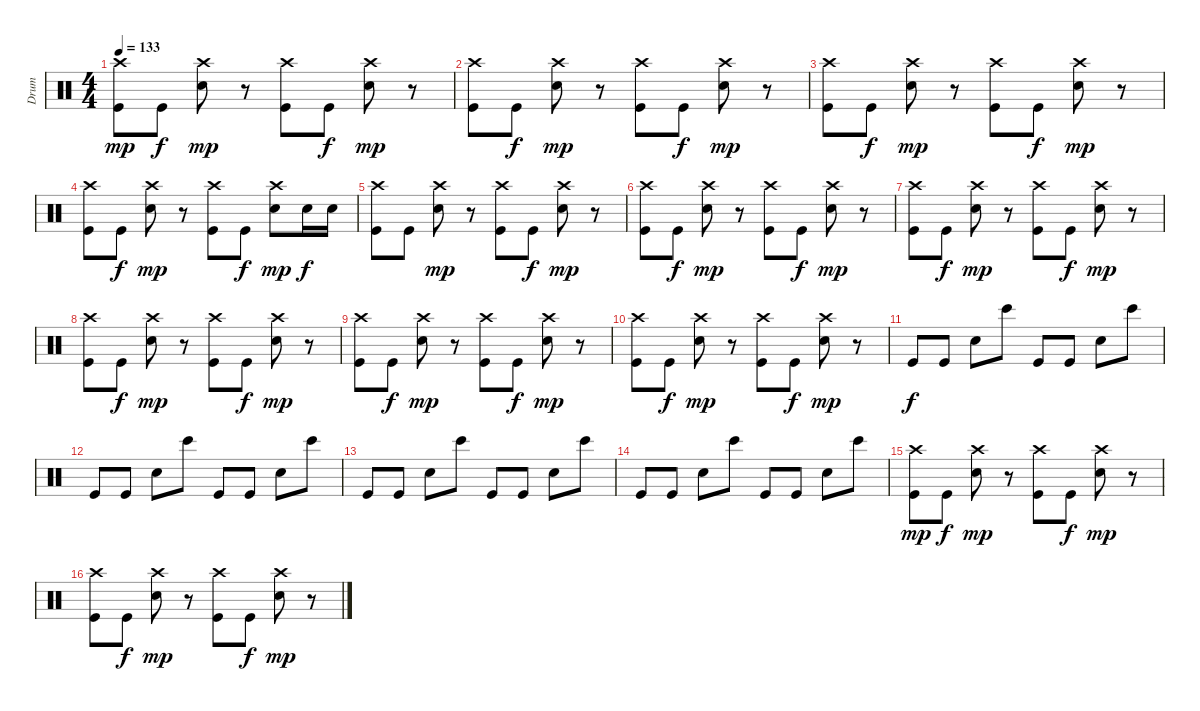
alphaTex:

\track ("Drum" "Drum") {instrument percussion}
\staff {score}
\articulation defaults
\ts (4 4)
\tempo 133
\clef neutral
\ks c
("Crash high (hit)" "Kick (hit)").8{dy mp} "Kick (hit)".8{dy f} ("Crash high (hit)" "Snare (hit) 2").8{dy mp} r.8 ("Crash high (hit)" "Kick (hit)").8 "Kick (hit)".8{dy f} ("Crash high (hit)" "Snare (hit) 2").8{dy mp} r.8 |
("Crash high (hit)" "Kick (hit)").8 "Kick (hit)".8{dy f} ("Crash high (hit)" "Snare (hit) 2").8{dy mp} r.8 ("Crash high (hit)" "Kick (hit)").8 "Kick (hit)".8{dy f} ("Crash high (hit)" "Snare (hit) 2").8{dy mp} r.8 |
("Crash high (hit)" "Kick (hit)").8 "Kick (hit)".8{dy f} ("Crash high (hit)" "Snare (hit) 2").8{dy mp} r.8 ("Crash high (hit)" "Kick (hit)").8 "Kick (hit)".8{dy f} ("Crash high (hit)" "Snare (hit) 2").8{dy mp} r.8 |
("Crash high (hit)" "Kick (hit)").8 "Kick (hit)".8{dy f} ("Crash high (hit)" "Snare (hit) 2").8{dy mp} r.8 ("Crash high (hit)" "Kick (hit)").8 "Kick (hit)".8{dy f} ("Crash high (hit)" "Snare (hit) 2").8{dy mp} "Snare (hit) 2".16{dy f} "Snare (hit) 2".16 |
("Crash high (hit)" "Kick (hit)").8 "Kick (hit)".8 ("Crash high (hit)" "Snare (hit) 2").8{dy mp} r.8 ("Crash high (hit)" "Kick (hit)").8 "Kick (hit)".8{dy f} ("Crash high (hit)" "Snare (hit) 2").8{dy mp} r.8 |
("Crash high (hit)" "Kick (hit)").8 "Kick (hit)".8{dy f} ("Crash high (hit)" "Snare (hit) 2").8{dy mp} r.8 ("Crash high (hit)" "Kick (hit)").8 "Kick (hit)".8{dy f} ("Crash high (hit)" "Snare (hit) 2").8{dy mp} r.8 |
("Crash high (hit)" "Kick (hit)").8 "Kick (hit)".8{dy f} ("Crash high (hit)" "Snare (hit) 2").8{dy mp} r.8 ("Crash high (hit)" "Kick (hit)").8 "Kick (hit)".8{dy f} ("Crash high (hit)" "Snare (hit) 2").8{dy mp} r.8 |
("Crash high (hit)" "Kick (hit)").8 "Kick (hit)".8{dy f} ("Crash high (hit)" "Snare (hit) 2").8{dy mp} r.8 ("Crash high (hit)" "Kick (hit)").8 "Kick (hit)".8{dy f} ("Crash high (hit)" "Snare (hit) 2").8{dy mp} r.8 |
("Crash high (hit)" "Kick (hit)").8 "Kick (hit)".8{dy f} ("Crash high (hit)" "Snare (hit) 2").8{dy mp} r.8 ("Crash high (hit)" "Kick (hit)").8 "Kick (hit)".8{dy f} ("Crash high (hit)" "Snare (hit) 2").8{dy mp} r.8 |
("Crash high (hit)" "Kick (hit)").8 "Kick (hit)".8{dy f} ("Crash high (hit)" "Snare (hit) 2").8{dy mp} r.8 ("Crash high (hit)" "Kick (hit)").8 "Kick (hit)".8{dy f} ("Crash high (hit)" "Snare (hit) 2").8{dy mp} r.8 |
"Kick (hit)".8{dy f} "Kick (hit)".8 "Snare (hit) 2".8 "Bongo High (hit)".8 "Kick (hit)".8 "Kick (hit)".8 "Snare (hit) 2".8 "Bongo High (hit)".8 |
"Kick (hit)".8 "Kick (hit)".8 "Snare (hit) 2".8 "Bongo High (hit)".8 "Kick (hit)".8 "Kick (hit)".8 "Snare (hit) 2".8 "Bongo High (hit)".8 |
"Kick (hit)".8 "Kick (hit)".8 "Snare (hit) 2".8 "Bongo High (hit)".8 "Kick (hit)".8 "Kick (hit)".8 "Snare (hit) 2".8 "Bongo High (hit)".8 |
"Kick (hit)".8 "Kick (hit)".8 "Snare (hit) 2".8 "Bongo High (hit)".8 "Kick (hit)".8 "Kick (hit)".8 "Snare (hit) 2".8 "Bongo High (hit)".8 |
("Crash high (hit)" "Kick (hit)").8{dy mp} "Kick (hit)".8{dy f} ("Crash high (hit)" "Snare (hit) 2").8{dy mp} r.8 ("Crash high (hit)" "Kick (hit)").8 "Kick (hit)".8{dy f} ("Crash high (hit)" "Snare (hit) 2").8{dy mp} r.8 |
("Crash high (hit)" "Kick (hit)").8 "Kick (hit)".8{dy f} ("Crash high (hit)" "Snare (hit) 2").8{dy mp} r.8 ("Crash high (hit)" "Kick (hit)").8 "Kick (hit)".8{dy f} ("Crash high (hit)" "Snare (hit) 2").8{dy mp} r.8
